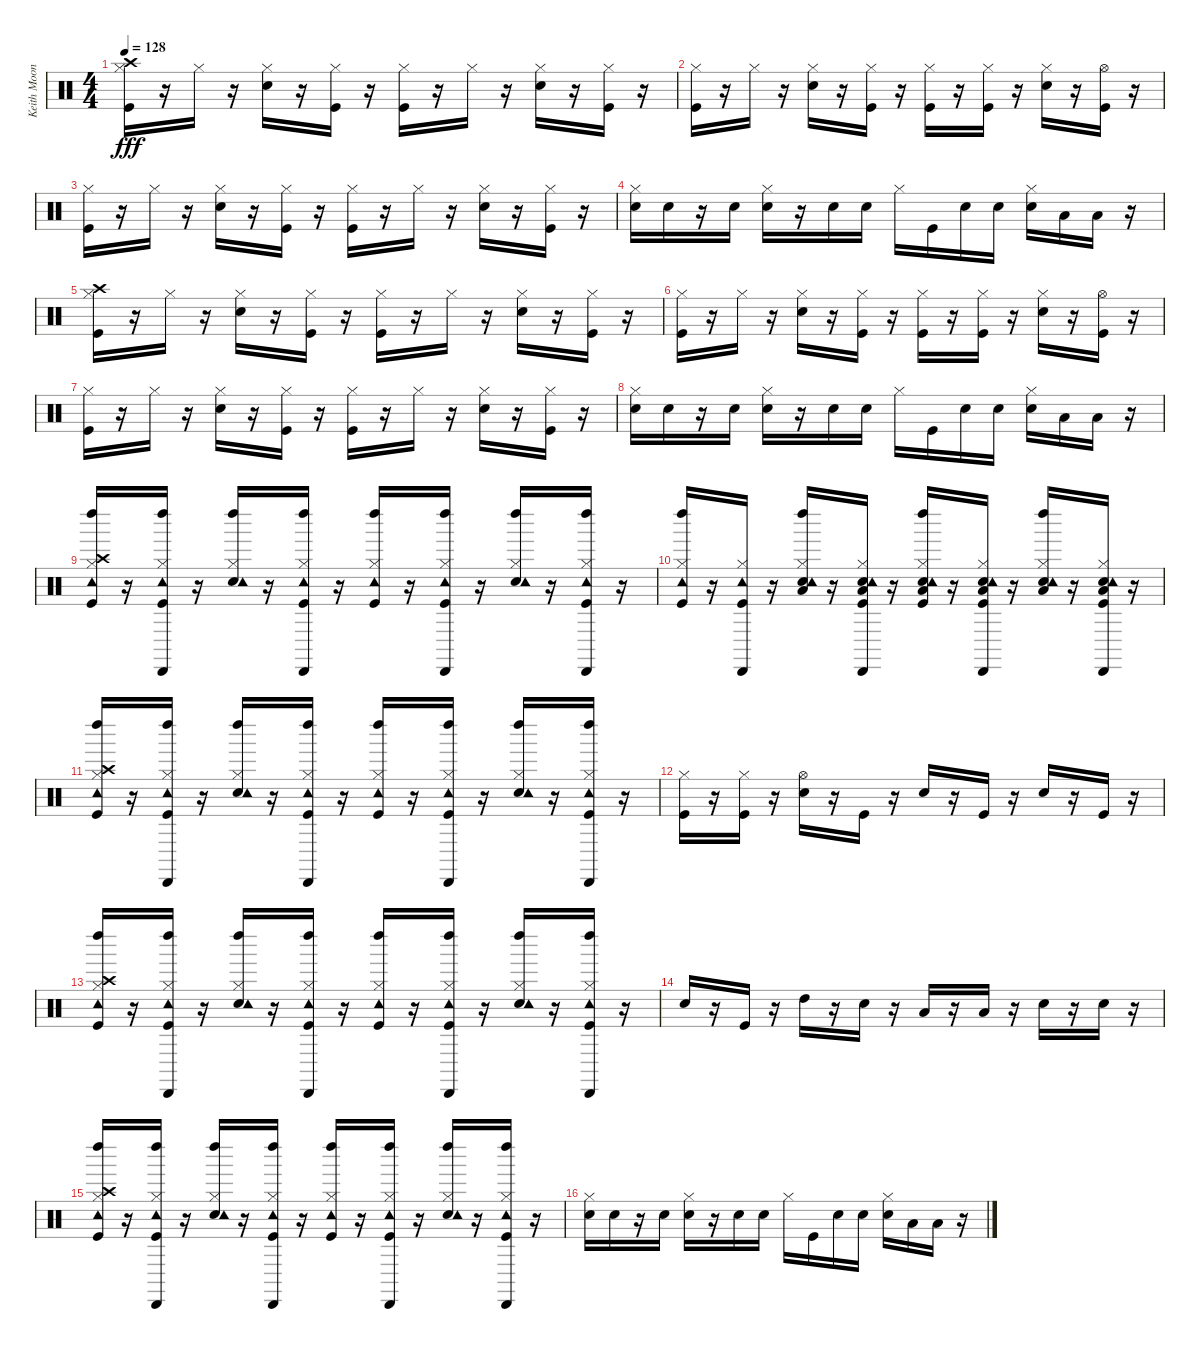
\track ("Keith Moon" "Keith Moon") {instrument percussion}
\staff {score}
\articulation defaults
\ts (4 4)
\tempo 128
\clef neutral
\ks c
("Kick (hit)" "Hi-Hat (closed)" "Crash high (hit)").16{dy fff} r.16 "Hi-Hat (closed)".16 r.16 ("Snare (hit) 2" "Hi-Hat (closed)").16 r.16 ("Kick (hit)" "Hi-Hat (closed)").16 r.16 ("Kick (hit)" "Hi-Hat (closed)").16 r.16 "Hi-Hat (closed)".16 r.16 ("Snare (hit) 2" "Hi-Hat (closed)").16 r.16 ("Kick (hit)" "Hi-Hat (closed)").16 r.16 |
("Kick (hit)" "Hi-Hat (closed)").16 r.16 "Hi-Hat (closed)".16 r.16 ("Snare (hit) 2" "Hi-Hat (closed)").16 r.16 ("Kick (hit)" "Hi-Hat (closed)").16 r.16 ("Kick (hit)" "Hi-Hat (closed)").16 r.16 ("Kick (hit)" "Hi-Hat (closed)").16 r.16 ("Snare (hit) 2" "Hi-Hat (closed)").16 r.16 ("Kick (hit)" "Hi-Hat (open)").16 r.16 |
("Kick (hit)" "Hi-Hat (closed)").16 r.16 "Hi-Hat (closed)".16 r.16 ("Snare (hit) 2" "Hi-Hat (closed)").16 r.16 ("Kick (hit)" "Hi-Hat (closed)").16 r.16 ("Kick (hit)" "Hi-Hat (closed)").16 r.16 "Hi-Hat (closed)".16 r.16 ("Snare (hit) 2" "Hi-Hat (closed)").16 r.16 ("Kick (hit)" "Hi-Hat (closed)").16 r.16 |
("Snare (hit) 2" "Hi-Hat (closed)").16 "Snare (hit) 2".16 r.16 "Snare (hit) 2".16 ("Snare (hit) 2" "Hi-Hat (closed)").16 r.16 "Snare (hit) 2".16 "Snare (hit) 2".16 "Hi-Hat (closed)".16 "Kick (hit)".16 "Snare (hit) 2".16 "Snare (hit) 2".16 ("Snare (hit) 2" "Hi-Hat (closed)").16 "Low Tom (hit)".16 "Low Floor Tom (hit)".16 r.16 |
("Kick (hit)" "Hi-Hat (closed)" "Crash high (hit)").16 r.16 "Hi-Hat (closed)".16 r.16 ("Snare (hit) 2" "Hi-Hat (closed)").16 r.16 ("Kick (hit)" "Hi-Hat (closed)").16 r.16 ("Kick (hit)" "Hi-Hat (closed)").16 r.16 "Hi-Hat (closed)".16 r.16 ("Snare (hit) 2" "Hi-Hat (closed)").16 r.16 ("Kick (hit)" "Hi-Hat (closed)").16 r.16 |
("Kick (hit)" "Hi-Hat (closed)").16 r.16 "Hi-Hat (closed)".16 r.16 ("Snare (hit) 2" "Hi-Hat (closed)").16 r.16 ("Kick (hit)" "Hi-Hat (closed)").16 r.16 ("Kick (hit)" "Hi-Hat (closed)").16 r.16 ("Kick (hit)" "Hi-Hat (closed)").16 r.16 ("Snare (hit) 2" "Hi-Hat (closed)").16 r.16 ("Kick (hit)" "Hi-Hat (open)").16 r.16 |
("Kick (hit)" "Hi-Hat (closed)").16 r.16 "Hi-Hat (closed)".16 r.16 ("Snare (hit) 2" "Hi-Hat (closed)").16 r.16 ("Kick (hit)" "Hi-Hat (closed)").16 r.16 ("Kick (hit)" "Hi-Hat (closed)").16 r.16 "Hi-Hat (closed)".16 r.16 ("Snare (hit) 2" "Hi-Hat (closed)").16 r.16 ("Kick (hit)" "Hi-Hat (closed)").16 r.16 |
("Snare (hit) 2" "Hi-Hat (closed)").16 "Snare (hit) 2".16 r.16 "Snare (hit) 2".16 ("Snare (hit) 2" "Hi-Hat (closed)").16 r.16 "Snare (hit) 2".16 "Snare (hit) 2".16 "Hi-Hat (closed)".16 "Kick (hit)".16 "Snare (hit) 2".16 "Snare (hit) 2".16 ("Snare (hit) 2" "Hi-Hat (closed)").16 "Low Tom (hit)".16 "Low Floor Tom (hit)".16 r.16 |
("Kick (hit)" "Hi-Hat (closed)" "Crash high (hit)" "Tambourine (hit)" "Left Maraca (hit)").16 r.16 ("Kick (hit)" "Hi-Hat (closed)" "Tambourine (hit)" "Left Maraca (hit)" "Cabasa (hit)").16 r.16 ("Snare (hit) 2" "Hi-Hat (closed)" "Tambourine (hit)" "Left Maraca (hit)").16 r.16 ("Kick (hit)" "Hi-Hat (closed)" "Tambourine (hit)" "Left Maraca (hit)" "Cabasa (hit)").16 r.16 ("Kick (hit)" "Hi-Hat (closed)" "Tambourine (hit)" "Left Maraca (hit)").16 r.16 ("Kick (hit)" "Hi-Hat (closed)" "Tambourine (hit)" "Left Maraca (hit)" "Cabasa (hit)").16 r.16 ("Snare (hit) 2" "Hi-Hat (closed)" "Tambourine (hit)" "Left Maraca (hit)").16 r.16 ("Kick (hit)" "Hi-Hat (closed)" "Tambourine (hit)" "Left Maraca (hit)" "Cabasa (hit)").16 r.16 |
("Kick (hit)" "Hi-Hat (closed)" "Tambourine (hit)" "Left Maraca (hit)").16 r.16 ("Kick (hit)" "Hi-Hat (closed)" "Tambourine (hit)" "Cabasa (hit)").16 r.16 ("Snare (hit) 2" "Hi-Hat (closed)" "Low Floor Tom (hit)" "Tambourine (hit)" "Left Maraca (hit)").16 r.16 ("Kick (hit)" "Snare (hit) 2" "Hi-Hat (closed)" "Low Floor Tom (hit)" "Tambourine (hit)" "Cabasa (hit)").16 r.16 ("Kick (hit)" "Snare (hit) 2" "Hi-Hat (closed)" "Low Floor Tom (hit)" "Tambourine (hit)" "Left Maraca (hit)").16 r.16 ("Kick (hit)" "Snare (hit) 2" "Hi-Hat (closed)" "Low Floor Tom (hit)" "Tambourine (hit)" "Cabasa (hit)").16 r.16 ("Snare (hit) 2" "Hi-Hat (closed)" "Low Floor Tom (hit)" "Tambourine (hit)" "Left Maraca (hit)").16 r.16 ("Kick (hit)" "Snare (hit) 2" "Hi-Hat (closed)" "Low Floor Tom (hit)" "Tambourine (hit)" "Cabasa (hit)").16 r.16 |
("Kick (hit)" "Hi-Hat (closed)" "Crash high (hit)" "Tambourine (hit)" "Left Maraca (hit)").16 r.16 ("Kick (hit)" "Hi-Hat (closed)" "Tambourine (hit)" "Left Maraca (hit)" "Cabasa (hit)").16 r.16 ("Snare (hit) 2" "Hi-Hat (closed)" "Tambourine (hit)" "Left Maraca (hit)").16 r.16 ("Kick (hit)" "Hi-Hat (closed)" "Tambourine (hit)" "Left Maraca (hit)" "Cabasa (hit)").16 r.16 ("Kick (hit)" "Hi-Hat (closed)" "Tambourine (hit)" "Left Maraca (hit)").16 r.16 ("Kick (hit)" "Hi-Hat (closed)" "Tambourine (hit)" "Left Maraca (hit)" "Cabasa (hit)").16 r.16 ("Snare (hit) 2" "Hi-Hat (closed)" "Tambourine (hit)" "Left Maraca (hit)").16 r.16 ("Kick (hit)" "Hi-Hat (closed)" "Tambourine (hit)" "Left Maraca (hit)" "Cabasa (hit)").16 r.16 |
("Kick (hit)" "Hi-Hat (closed)").16 r.16 ("Kick (hit)" "Hi-Hat (closed)").16 r.16 ("Snare (hit) 2" "Hi-Hat (open)").16 r.16 "Kick (hit)".16 r.16 "Snare (hit) 2".16 r.16 "Kick (hit)".16 r.16 "Snare (hit) 2".16 r.16 "Kick (hit)".16 r.16 |
("Kick (hit)" "Hi-Hat (closed)" "Crash high (hit)" "Tambourine (hit)" "Left Maraca (hit)").16 r.16 ("Kick (hit)" "Hi-Hat (closed)" "Tambourine (hit)" "Left Maraca (hit)" "Cabasa (hit)").16 r.16 ("Snare (hit) 2" "Hi-Hat (closed)" "Tambourine (hit)" "Left Maraca (hit)").16 r.16 ("Kick (hit)" "Hi-Hat (closed)" "Tambourine (hit)" "Left Maraca (hit)" "Cabasa (hit)").16 r.16 ("Kick (hit)" "Hi-Hat (closed)" "Tambourine (hit)" "Left Maraca (hit)").16 r.16 ("Kick (hit)" "Hi-Hat (closed)" "Tambourine (hit)" "Left Maraca (hit)" "Cabasa (hit)").16 r.16 ("Snare (hit) 2" "Hi-Hat (closed)" "Tambourine (hit)" "Left Maraca (hit)").16 r.16 ("Kick (hit)" "Hi-Hat (closed)" "Tambourine (hit)" "Left Maraca (hit)" "Cabasa (hit)").16 r.16 |
"Snare (hit) 2".16 r.16 "Kick (hit)".16 r.16 "High Tom (hit)".16 r.16 "Snare (hit) 2".16 r.16 "Low Tom (hit)".16 r.16 "Low Tom (hit)".16 r.16 "Snare (hit) 2".16 r.16 "Snare (hit) 2".16 r.16 |
("Kick (hit)" "Hi-Hat (closed)" "Crash high (hit)" "Tambourine (hit)" "Left Maraca (hit)").16 r.16 ("Kick (hit)" "Hi-Hat (closed)" "Tambourine (hit)" "Left Maraca (hit)" "Cabasa (hit)").16 r.16 ("Snare (hit) 2" "Hi-Hat (closed)" "Tambourine (hit)" "Left Maraca (hit)").16 r.16 ("Kick (hit)" "Hi-Hat (closed)" "Tambourine (hit)" "Left Maraca (hit)" "Cabasa (hit)").16 r.16 ("Kick (hit)" "Hi-Hat (closed)" "Tambourine (hit)" "Left Maraca (hit)").16 r.16 ("Kick (hit)" "Hi-Hat (closed)" "Tambourine (hit)" "Left Maraca (hit)" "Cabasa (hit)").16 r.16 ("Snare (hit) 2" "Hi-Hat (closed)" "Tambourine (hit)" "Left Maraca (hit)").16 r.16 ("Kick (hit)" "Hi-Hat (closed)" "Tambourine (hit)" "Left Maraca (hit)" "Cabasa (hit)").16 r.16 |
("Snare (hit) 2" "Hi-Hat (closed)").16 "Snare (hit) 2".16 r.16 "Snare (hit) 2".16 ("Snare (hit) 2" "Hi-Hat (closed)").16 r.16 "Snare (hit) 2".16 "Snare (hit) 2".16 "Hi-Hat (closed)".16 "Kick (hit)".16 "Snare (hit) 2".16 "Snare (hit) 2".16 ("Snare (hit) 2" "Hi-Hat (closed)").16 "Low Tom (hit)".16 "Low Floor Tom (hit)".16 r.16
